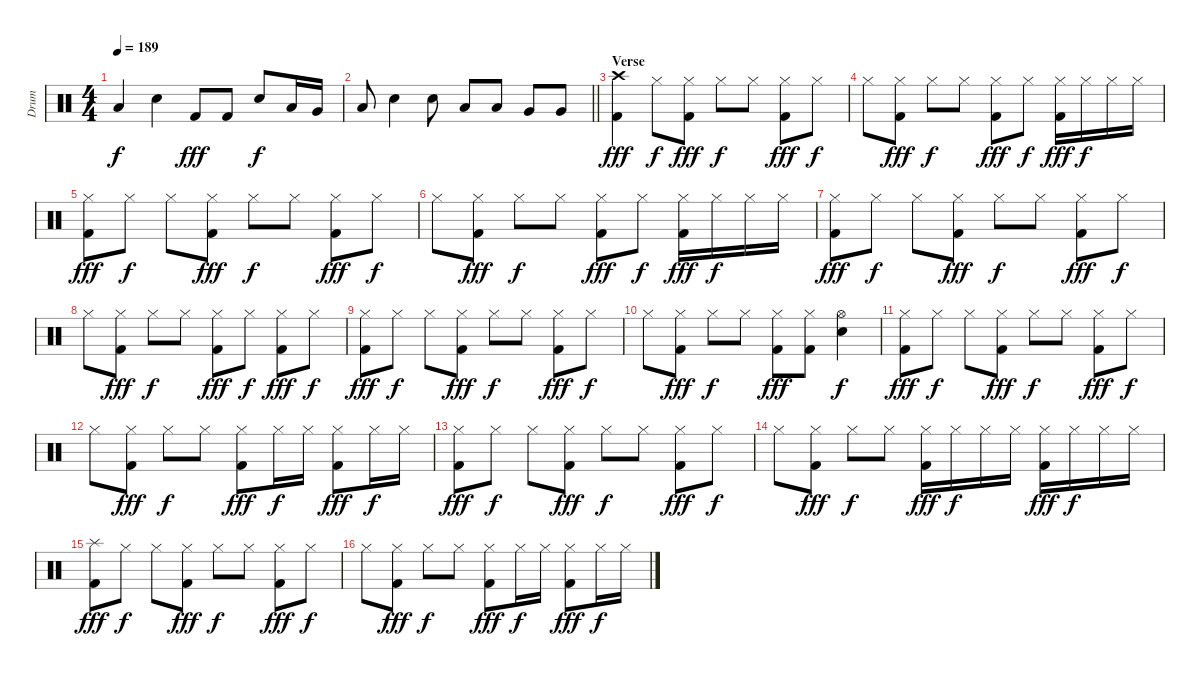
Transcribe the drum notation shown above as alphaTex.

\track ("Drum" "Drum") {instrument percussion}
\staff {score}
\articulation defaults
\ts (4 4)
\tempo 189
\clef neutral
\ks c "Low Floor Tom (hit)".4{dy f} "Electric Snare (hit)".4 "Kick (hit) 2".8{dy fff} "Kick (hit) 2".8 "Electric Snare (hit)".8{dy f} "Low Tom (hit)".16 "Very Low Tom (hit)".16
|
\barLineRight lightlight "Low Floor Tom (hit)".8 "Electric Snare (hit)".4 "Electric Snare (hit)".8 "Low Tom (hit)".8 "Low Tom (hit)".8 "Very Low Tom (hit)".8 "Very Low Tom (hit)".8
|
\section ("" "Verse")
("Crash high (hit)" "Kick (hit) 2").4{dy fff} "Hi-Hat (closed)".8{dy f} ("Hi-Hat (closed)" "Kick (hit) 2").8{dy fff} "Hi-Hat (closed)".8{dy f} "Hi-Hat (closed)".8 ("Hi-Hat (closed)" "Kick (hit) 2").8{dy fff} "Hi-Hat (closed)".8{dy f} |
"Hi-Hat (closed)".8 ("Hi-Hat (closed)" "Kick (hit) 2").8{dy fff} "Hi-Hat (closed)".8{dy f} "Hi-Hat (closed)".8 ("Hi-Hat (closed)" "Kick (hit) 2").8{dy fff} "Hi-Hat (closed)".8{dy f} ("Hi-Hat (closed)" "Kick (hit) 2").16{dy fff} "Hi-Hat (closed)".16{dy f} "Hi-Hat (closed)".16 "Hi-Hat (closed)".16 |
("Hi-Hat (closed)" "Kick (hit) 2").8{dy fff} "Hi-Hat (closed)".8{dy f} "Hi-Hat (closed)".8 ("Hi-Hat (closed)" "Kick (hit) 2").8{dy fff} "Hi-Hat (closed)".8{dy f} "Hi-Hat (closed)".8 ("Hi-Hat (closed)" "Kick (hit) 2").8{dy fff} "Hi-Hat (closed)".8{dy f} |
"Hi-Hat (closed)".8 ("Hi-Hat (closed)" "Kick (hit) 2").8{dy fff} "Hi-Hat (closed)".8{dy f} "Hi-Hat (closed)".8 ("Hi-Hat (closed)" "Kick (hit) 2").8{dy fff} "Hi-Hat (closed)".8{dy f} ("Hi-Hat (closed)" "Kick (hit) 2").16{dy fff} "Hi-Hat (closed)".16{dy f} "Hi-Hat (closed)".16 "Hi-Hat (closed)".16 |
("Hi-Hat (closed)" "Kick (hit) 2").8{dy fff} "Hi-Hat (closed)".8{dy f} "Hi-Hat (closed)".8 ("Hi-Hat (closed)" "Kick (hit) 2").8{dy fff} "Hi-Hat (closed)".8{dy f} "Hi-Hat (closed)".8 ("Hi-Hat (closed)" "Kick (hit) 2").8{dy fff} "Hi-Hat (closed)".8{dy f} |
"Hi-Hat (closed)".8 ("Hi-Hat (closed)" "Kick (hit) 2").8{dy fff} "Hi-Hat (closed)".8{dy f} "Hi-Hat (closed)".8 ("Hi-Hat (closed)" "Kick (hit) 2").8{dy fff} "Hi-Hat (closed)".8{dy f} ("Hi-Hat (closed)" "Kick (hit) 2").8{dy fff} "Hi-Hat (closed)".8{dy f} |
("Hi-Hat (closed)" "Kick (hit) 2").8{dy fff} "Hi-Hat (closed)".8{dy f} "Hi-Hat (closed)".8 ("Hi-Hat (closed)" "Kick (hit) 2").8{dy fff} "Hi-Hat (closed)".8{dy f} "Hi-Hat (closed)".8 ("Hi-Hat (closed)" "Kick (hit) 2").8{dy fff} "Hi-Hat (closed)".8{dy f} |
"Hi-Hat (closed)".8 ("Hi-Hat (closed)" "Kick (hit) 2").8{dy fff} "Hi-Hat (closed)".8{dy f} "Hi-Hat (closed)".8 ("Hi-Hat (closed)" "Kick (hit) 2").8{dy fff} ("Hi-Hat (closed)" "Kick (hit) 2").8 ("Hi-Hat (open)" "Electric Snare (hit)").4{dy f} |
("Hi-Hat (closed)" "Kick (hit) 2").8{dy fff} "Hi-Hat (closed)".8{dy f} "Hi-Hat (closed)".8 ("Hi-Hat (closed)" "Kick (hit) 2").8{dy fff} "Hi-Hat (closed)".8{dy f} "Hi-Hat (closed)".8 ("Hi-Hat (closed)" "Kick (hit) 2").8{dy fff} "Hi-Hat (closed)".8{dy f} |
"Hi-Hat (closed)".8 ("Hi-Hat (closed)" "Kick (hit) 2").8{dy fff} "Hi-Hat (closed)".8{dy f} "Hi-Hat (closed)".8 ("Hi-Hat (closed)" "Kick (hit) 2").8{dy fff} "Hi-Hat (closed)".16{dy f} "Hi-Hat (closed)".16 ("Hi-Hat (closed)" "Kick (hit) 2").8{dy fff} "Hi-Hat (closed)".16{dy f} "Hi-Hat (closed)".16 |
("Hi-Hat (closed)" "Kick (hit) 2").8{dy fff} "Hi-Hat (closed)".8{dy f} "Hi-Hat (closed)".8 ("Hi-Hat (closed)" "Kick (hit) 2").8{dy fff} "Hi-Hat (closed)".8{dy f} "Hi-Hat (closed)".8 ("Hi-Hat (closed)" "Kick (hit) 2").8{dy fff} "Hi-Hat (closed)".8{dy f} |
"Hi-Hat (closed)".8 ("Hi-Hat (closed)" "Kick (hit) 2").8{dy fff} "Hi-Hat (closed)".8{dy f} "Hi-Hat (closed)".8 ("Hi-Hat (closed)" "Kick (hit) 2").16{dy fff} "Hi-Hat (closed)".16{dy f} "Hi-Hat (closed)".16 "Hi-Hat (closed)".16 ("Hi-Hat (closed)" "Kick (hit) 2").16{dy fff} "Hi-Hat (closed)".16{dy f} "Hi-Hat (closed)".16 "Hi-Hat (closed)".16 |
("Splash (hit)" "Kick (hit) 2").8{dy fff} "Hi-Hat (closed)".8{dy f} "Hi-Hat (closed)".8 ("Hi-Hat (closed)" "Kick (hit) 2").8{dy fff} "Hi-Hat (closed)".8{dy f} "Hi-Hat (closed)".8 ("Hi-Hat (closed)" "Kick (hit) 2").8{dy fff} "Hi-Hat (closed)".8{dy f} |
"Hi-Hat (closed)".8 ("Hi-Hat (closed)" "Kick (hit) 2").8{dy fff} "Hi-Hat (closed)".8{dy f} "Hi-Hat (closed)".8 ("Hi-Hat (closed)" "Kick (hit) 2").8{dy fff} "Hi-Hat (closed)".16{dy f} "Hi-Hat (closed)".16 ("Hi-Hat (closed)" "Kick (hit) 2").8{dy fff} "Hi-Hat (closed)".16{dy f} "Hi-Hat (closed)".16
